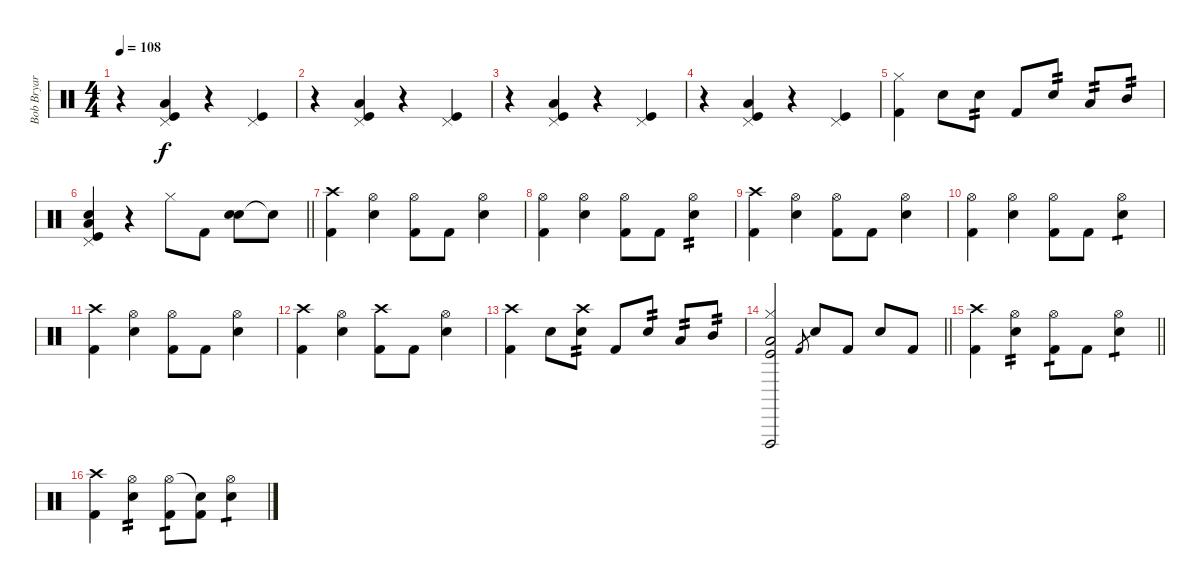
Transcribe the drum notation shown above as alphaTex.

\track ("Bob Bryar [Drums]" "Bob Bryar ") {instrument percussion}
\staff {score}
\articulation defaults
\ts (4 4)
\tempo 108
\clef neutral
\ks c
r.4{dy f} ("Pedal Hi-Hat (hit)" "Low Floor Tom (hit)" "Kick (hit)").4 r.4 ("Pedal Hi-Hat (hit)" "Kick (hit)").4 |
r.4 ("Pedal Hi-Hat (hit)" "Low Floor Tom (hit)" "Kick (hit)").4 r.4 ("Pedal Hi-Hat (hit)" "Kick (hit)").4 |
r.4 ("Pedal Hi-Hat (hit)" "Low Floor Tom (hit)" "Kick (hit)").4 r.4 ("Pedal Hi-Hat (hit)" "Kick (hit)").4 |
r.4 ("Pedal Hi-Hat (hit)" "Low Floor Tom (hit)" "Kick (hit)").4 r.4 ("Pedal Hi-Hat (hit)" "Kick (hit)").4 |
("Hi-Hat (closed)" "Kick (hit) 2").4 "Electric Snare (hit)".8 "Electric Snare (hit)".8{tp 2} "Kick (hit) 2".8 "Electric Snare (hit)".8{tp 2} "Low Tom (hit)".8{tp 2} "Mid Tom (hit)".8{tp 2} |
\barLineRight lightlight
("Pedal Hi-Hat (hit)" "Snare (hit) 2" "Low Floor Tom (hit)" "Kick (hit)").4 r.4 "Hi-Hat (closed)".8 "Kick (hit) 2".8 ("Electric Snare (hit)" "Electric Snare (hit)").8 "Electric Snare (hit)"{t}.8 |
("Crash high (hit)" "Kick (hit) 2").4 ("Hi-Hat (open)" "Electric Snare (hit)").4 ("Hi-Hat (open)" "Kick (hit) 2").8 "Kick (hit) 2".8 ("Hi-Hat (open)" "Electric Snare (hit)").4 |
("Hi-Hat (open)" "Kick (hit) 2").4 ("Hi-Hat (open)" "Electric Snare (hit)").4 ("Hi-Hat (open)" "Kick (hit) 2").8 "Kick (hit) 2".8 ("Hi-Hat (open)" "Electric Snare (hit)").4{tp 2} |
("Crash high (hit)" "Kick (hit) 2").4 ("Hi-Hat (open)" "Electric Snare (hit)").4 ("Hi-Hat (open)" "Kick (hit) 2").8 "Kick (hit) 2".8 ("Hi-Hat (open)" "Electric Snare (hit)").4 |
("Hi-Hat (open)" "Kick (hit) 2").4 ("Hi-Hat (open)" "Electric Snare (hit)").4 ("Hi-Hat (open)" "Kick (hit) 2").8 "Kick (hit) 2".8 ("Hi-Hat (open)" "Electric Snare (hit)").4{tp 1} |
("Crash high (hit)" "Kick (hit) 2").4 ("Hi-Hat (open)" "Electric Snare (hit)").4 ("Hi-Hat (open)" "Kick (hit) 2").8 "Kick (hit) 2".8 ("Hi-Hat (open)" "Electric Snare (hit)").4 |
("Crash high (hit)" "Kick (hit) 2").4 ("Hi-Hat (open)" "Electric Snare (hit)").4 ("Crash high (hit)" "Kick (hit) 2").8 "Kick (hit) 2".8 ("Hi-Hat (open)" "Electric Snare (hit)").4 |
("Crash high (hit)" "Kick (hit) 2").4 "Electric Snare (hit)".8 ("Crash high (hit)" "Electric Snare (hit)").8{tp 2} "Kick (hit) 2".8 "Electric Snare (hit)".8{tp 2} "Low Tom (hit)".8{tp 2} "Mid Tom (hit)".8{tp 2} |
\barLineRight lightlight
("Vibraslap (hit)" "Hi-Hat (closed)" "Low Floor Tom (hit)" "Kick (hit)").2 "Kick (hit) 2".8{gr} "Electric Snare (hit)".8 "Kick (hit) 2".8 "Electric Snare (hit)".8 "Kick (hit) 2".8 |
\barLineRight lightlight
("Crash high (hit)" "Kick (hit) 2").4 ("Hi-Hat (open)" "Electric Snare (hit)").4{tp 2} ("Hi-Hat (open)" "Kick (hit) 2").8{tp 1} "Kick (hit) 2".8 ("Hi-Hat (open)" "Electric Snare (hit)").4{tp 1} |
("Crash high (hit)" "Kick (hit) 2").4 ("Hi-Hat (open)" "Electric Snare (hit)").4{tp 2} ("Hi-Hat (open)" "Kick (hit) 2").8{tp 1} ("Snare (hit)"{t} "Kick (hit) 2").8 ("Hi-Hat (open)" "Electric Snare (hit)").4{tp 1}
